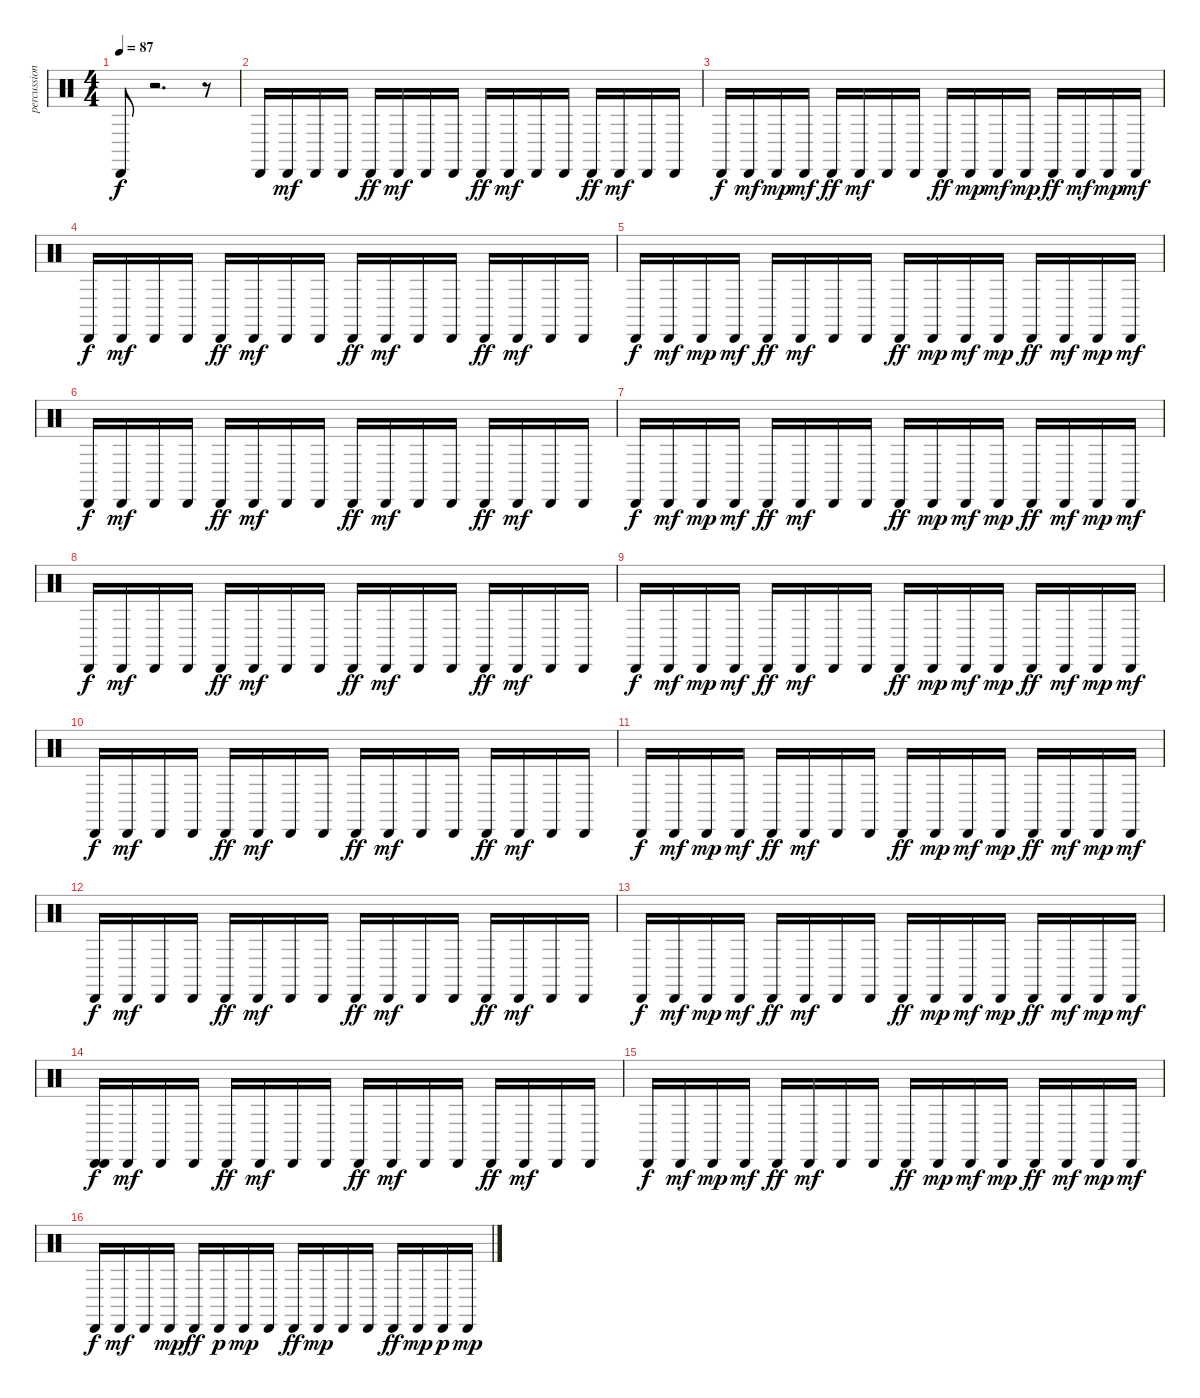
\track ("percussion" "percussion") {instrument percussion}
\staff {score}
\articulation defaults
\ts (4 4)
\tempo 87
\clef neutral
\ks c "Cabasa (hit)".8{dy f}
r.2{d} r.8 |
"Cabasa (hit)".16 "Cabasa (hit)".16{dy mf} "Cabasa (hit)".16 "Cabasa (hit)".16 "Cabasa (hit)".16{dy ff} "Cabasa (hit)".16{dy mf} "Cabasa (hit)".16 "Cabasa (hit)".16 "Cabasa (hit)".16{dy ff} "Cabasa (hit)".16{dy mf} "Cabasa (hit)".16 "Cabasa (hit)".16 "Cabasa (hit)".16{dy ff} "Cabasa (hit)".16{dy mf} "Cabasa (hit)".16 "Cabasa (hit)".16 |
"Cabasa (hit)".16{dy f} "Cabasa (hit)".16{dy mf} "Cabasa (hit)".16{dy mp} "Cabasa (hit)".16{dy mf} "Cabasa (hit)".16{dy ff} "Cabasa (hit)".16{dy mf} "Cabasa (hit)".16 "Cabasa (hit)".16 "Cabasa (hit)".16{dy ff} "Cabasa (hit)".16{dy mp} "Cabasa (hit)".16{dy mf} "Cabasa (hit)".16{dy mp} "Cabasa (hit)".16{dy ff} "Cabasa (hit)".16{dy mf} "Cabasa (hit)".16{dy mp} "Cabasa (hit)".16{dy mf} |
"Cabasa (hit)".16{dy f} "Cabasa (hit)".16{dy mf} "Cabasa (hit)".16 "Cabasa (hit)".16 "Cabasa (hit)".16{dy ff} "Cabasa (hit)".16{dy mf} "Cabasa (hit)".16 "Cabasa (hit)".16 "Cabasa (hit)".16{dy ff} "Cabasa (hit)".16{dy mf} "Cabasa (hit)".16 "Cabasa (hit)".16 "Cabasa (hit)".16{dy ff} "Cabasa (hit)".16{dy mf} "Cabasa (hit)".16 "Cabasa (hit)".16 |
"Cabasa (hit)".16{dy f} "Cabasa (hit)".16{dy mf} "Cabasa (hit)".16{dy mp} "Cabasa (hit)".16{dy mf} "Cabasa (hit)".16{dy ff} "Cabasa (hit)".16{dy mf} "Cabasa (hit)".16 "Cabasa (hit)".16 "Cabasa (hit)".16{dy ff} "Cabasa (hit)".16{dy mp} "Cabasa (hit)".16{dy mf} "Cabasa (hit)".16{dy mp} "Cabasa (hit)".16{dy ff} "Cabasa (hit)".16{dy mf} "Cabasa (hit)".16{dy mp} "Cabasa (hit)".16{dy mf} |
"Cabasa (hit)".16{dy f} "Cabasa (hit)".16{dy mf} "Cabasa (hit)".16 "Cabasa (hit)".16 "Cabasa (hit)".16{dy ff} "Cabasa (hit)".16{dy mf} "Cabasa (hit)".16 "Cabasa (hit)".16 "Cabasa (hit)".16{dy ff} "Cabasa (hit)".16{dy mf} "Cabasa (hit)".16 "Cabasa (hit)".16 "Cabasa (hit)".16{dy ff} "Cabasa (hit)".16{dy mf} "Cabasa (hit)".16 "Cabasa (hit)".16 |
"Cabasa (hit)".16{dy f} "Cabasa (hit)".16{dy mf} "Cabasa (hit)".16{dy mp} "Cabasa (hit)".16{dy mf} "Cabasa (hit)".16{dy ff} "Cabasa (hit)".16{dy mf} "Cabasa (hit)".16 "Cabasa (hit)".16 "Cabasa (hit)".16{dy ff} "Cabasa (hit)".16{dy mp} "Cabasa (hit)".16{dy mf} "Cabasa (hit)".16{dy mp} "Cabasa (hit)".16{dy ff} "Cabasa (hit)".16{dy mf} "Cabasa (hit)".16{dy mp} "Cabasa (hit)".16{dy mf} |
"Cabasa (hit)".16{dy f} "Cabasa (hit)".16{dy mf} "Cabasa (hit)".16 "Cabasa (hit)".16 "Cabasa (hit)".16{dy ff} "Cabasa (hit)".16{dy mf} "Cabasa (hit)".16 "Cabasa (hit)".16 "Cabasa (hit)".16{dy ff} "Cabasa (hit)".16{dy mf} "Cabasa (hit)".16 "Cabasa (hit)".16 "Cabasa (hit)".16{dy ff} "Cabasa (hit)".16{dy mf} "Cabasa (hit)".16 "Cabasa (hit)".16 |
"Cabasa (hit)".16{dy f} "Cabasa (hit)".16{dy mf} "Cabasa (hit)".16{dy mp} "Cabasa (hit)".16{dy mf} "Cabasa (hit)".16{dy ff} "Cabasa (hit)".16{dy mf} "Cabasa (hit)".16 "Cabasa (hit)".16 "Cabasa (hit)".16{dy ff} "Cabasa (hit)".16{dy mp} "Cabasa (hit)".16{dy mf} "Cabasa (hit)".16{dy mp} "Cabasa (hit)".16{dy ff} "Cabasa (hit)".16{dy mf} "Cabasa (hit)".16{dy mp} "Cabasa (hit)".16{dy mf} |
"Cabasa (hit)".16{dy f} "Cabasa (hit)".16{dy mf} "Cabasa (hit)".16 "Cabasa (hit)".16 "Cabasa (hit)".16{dy ff} "Cabasa (hit)".16{dy mf} "Cabasa (hit)".16 "Cabasa (hit)".16 "Cabasa (hit)".16{dy ff} "Cabasa (hit)".16{dy mf} "Cabasa (hit)".16 "Cabasa (hit)".16 "Cabasa (hit)".16{dy ff} "Cabasa (hit)".16{dy mf} "Cabasa (hit)".16 "Cabasa (hit)".16 |
"Cabasa (hit)".16{dy f} "Cabasa (hit)".16{dy mf} "Cabasa (hit)".16{dy mp} "Cabasa (hit)".16{dy mf} "Cabasa (hit)".16{dy ff} "Cabasa (hit)".16{dy mf} "Cabasa (hit)".16 "Cabasa (hit)".16 "Cabasa (hit)".16{dy ff} "Cabasa (hit)".16{dy mp} "Cabasa (hit)".16{dy mf} "Cabasa (hit)".16{dy mp} "Cabasa (hit)".16{dy ff} "Cabasa (hit)".16{dy mf} "Cabasa (hit)".16{dy mp} "Cabasa (hit)".16{dy mf} |
"Cabasa (hit)".16{dy f} "Cabasa (hit)".16{dy mf} "Cabasa (hit)".16 "Cabasa (hit)".16 "Cabasa (hit)".16{dy ff} "Cabasa (hit)".16{dy mf} "Cabasa (hit)".16 "Cabasa (hit)".16 "Cabasa (hit)".16{dy ff} "Cabasa (hit)".16{dy mf} "Cabasa (hit)".16 "Cabasa (hit)".16 "Cabasa (hit)".16{dy ff} "Cabasa (hit)".16{dy mf} "Cabasa (hit)".16 "Cabasa (hit)".16 |
"Cabasa (hit)".16{dy f} "Cabasa (hit)".16{dy mf} "Cabasa (hit)".16{dy mp} "Cabasa (hit)".16{dy mf} "Cabasa (hit)".16{dy ff} "Cabasa (hit)".16{dy mf} "Cabasa (hit)".16 "Cabasa (hit)".16 "Cabasa (hit)".16{dy ff} "Cabasa (hit)".16{dy mp} "Cabasa (hit)".16{dy mf} "Cabasa (hit)".16{dy mp} "Cabasa (hit)".16{dy ff} "Cabasa (hit)".16{dy mf} "Cabasa (hit)".16{dy mp} "Cabasa (hit)".16{dy mf} |
("Cabasa (hit)" "Cabasa (hit)").16{dy f} "Cabasa (hit)".16{dy mf} "Cabasa (hit)".16 "Cabasa (hit)".16 "Cabasa (hit)".16{dy ff} "Cabasa (hit)".16{dy mf} "Cabasa (hit)".16 "Cabasa (hit)".16 "Cabasa (hit)".16{dy ff} "Cabasa (hit)".16{dy mf} "Cabasa (hit)".16 "Cabasa (hit)".16 "Cabasa (hit)".16{dy ff} "Cabasa (hit)".16{dy mf} "Cabasa (hit)".16 "Cabasa (hit)".16 |
"Cabasa (hit)".16{dy f} "Cabasa (hit)".16{dy mf} "Cabasa (hit)".16{dy mp} "Cabasa (hit)".16{dy mf} "Cabasa (hit)".16{dy ff} "Cabasa (hit)".16{dy mf} "Cabasa (hit)".16 "Cabasa (hit)".16 "Cabasa (hit)".16{dy ff} "Cabasa (hit)".16{dy mp} "Cabasa (hit)".16{dy mf} "Cabasa (hit)".16{dy mp} "Cabasa (hit)".16{dy ff} "Cabasa (hit)".16{dy mf} "Cabasa (hit)".16{dy mp} "Cabasa (hit)".16{dy mf} |
"Cabasa (hit)".16{dy f} "Cabasa (hit)".16{dy mf} "Cabasa (hit)".16 "Cabasa (hit)".16{dy mp} "Cabasa (hit)".16{dy ff} "Cabasa (hit)".16{dy p} "Cabasa (hit)".16{dy mp} "Cabasa (hit)".16 "Cabasa (hit)".16{dy ff} "Cabasa (hit)".16{dy mp} "Cabasa (hit)".16 "Cabasa (hit)".16 "Cabasa (hit)".16{dy ff} "Cabasa (hit)".16{dy mp} "Cabasa (hit)".16{dy p} "Cabasa (hit)".16{dy mp}
